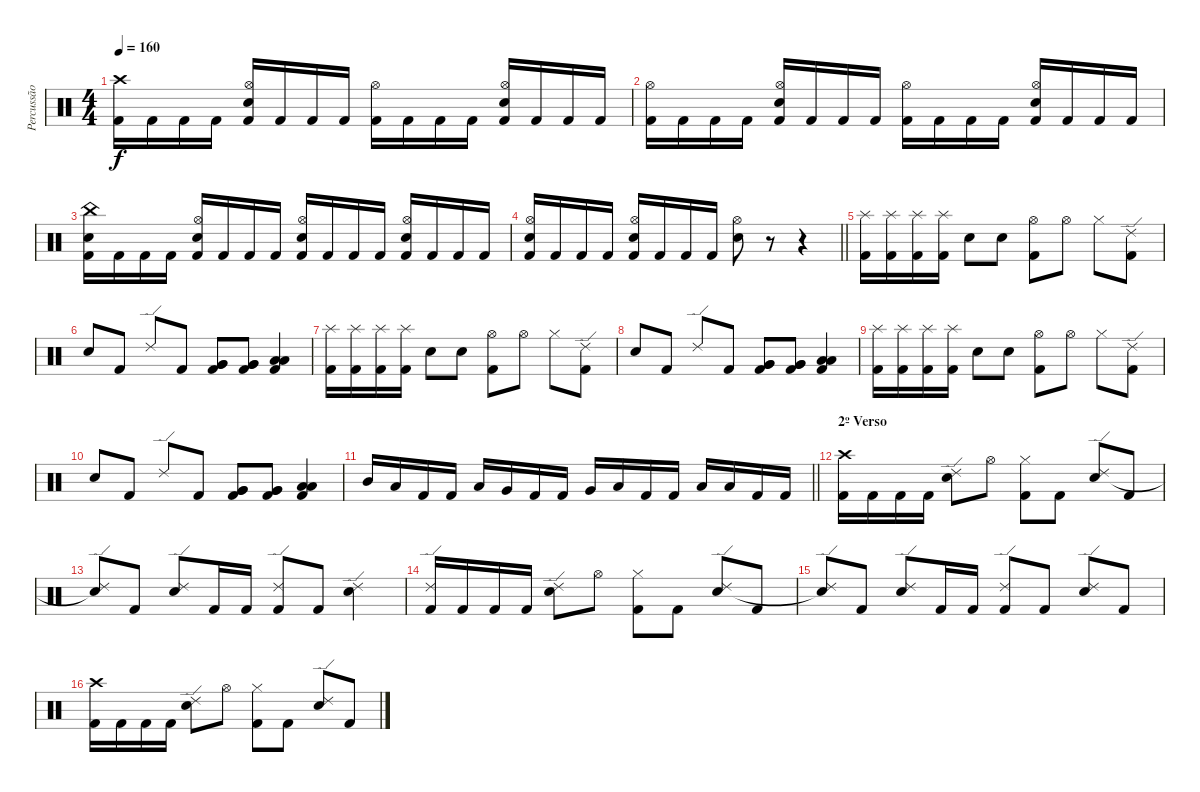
\track ("Percussão" "Percussão") {instrument percussion}
\staff {score}
\articulation defaults
\ts (4 4)
\tempo 160
\clef neutral
\ks c
("Crash high (hit)" "Kick (hit) 2").16{dy f} "Kick (hit) 2".16 "Kick (hit) 2".16 "Kick (hit) 2".16 ("Hi-Hat (open)" "Electric Snare (hit)" "Kick (hit) 2").16 "Kick (hit) 2".16 "Kick (hit) 2".16 "Kick (hit) 2".16 ("Hi-Hat (open)" "Kick (hit) 2").16 "Kick (hit) 2".16 "Kick (hit) 2".16 "Kick (hit) 2".16 ("Hi-Hat (open)" "Electric Snare (hit)" "Kick (hit) 2").16 "Kick (hit) 2".16 "Kick (hit) 2".16 "Kick (hit) 2".16 |
("Hi-Hat (open)" "Kick (hit) 2").16 "Kick (hit) 2".16 "Kick (hit) 2".16 "Kick (hit) 2".16 ("Hi-Hat (open)" "Electric Snare (hit)" "Kick (hit) 2").16 "Kick (hit) 2".16 "Kick (hit) 2".16 "Kick (hit) 2".16 ("Hi-Hat (open)" "Kick (hit) 2").16 "Kick (hit) 2".16 "Kick (hit) 2".16 "Kick (hit) 2".16 ("Hi-Hat (open)" "Electric Snare (hit)" "Kick (hit) 2").16 "Kick (hit) 2".16 "Kick (hit) 2".16 "Kick (hit) 2".16 |
("China (hit)" "Electric Snare (hit)" "Kick (hit) 2").16 "Kick (hit) 2".16 "Kick (hit) 2".16 "Kick (hit) 2".16 ("Hi-Hat (open)" "Electric Snare (hit)" "Kick (hit) 2").16 "Kick (hit) 2".16 "Kick (hit) 2".16 "Kick (hit) 2".16 ("Hi-Hat (open)" "Electric Snare (hit)" "Kick (hit) 2").16 "Kick (hit) 2".16 "Kick (hit) 2".16 "Kick (hit) 2".16 ("Hi-Hat (open)" "Electric Snare (hit)" "Kick (hit) 2").16 "Kick (hit) 2".16 "Kick (hit) 2".16 "Kick (hit) 2".16 |
\barLineRight lightlight
("Hi-Hat (open)" "Electric Snare (hit)" "Kick (hit) 2").16 "Kick (hit) 2".16 "Kick (hit) 2".16 "Kick (hit) 2".16 ("Hi-Hat (open)" "Electric Snare (hit)" "Kick (hit) 2").16 "Kick (hit) 2".16 "Kick (hit) 2".16 "Kick (hit) 2".16 ("Hi-Hat (open)" "Electric Snare (hit)").8 r.8 r.4 |
("Splash (hit)" "Kick (hit) 2").16 ("Splash (hit)" "Kick (hit) 2").16 ("Splash (hit)" "Kick (hit) 2").16 ("Splash (hit)" "Kick (hit) 2").16 "Electric Snare (hit)".8 "Electric Snare (hit)".8 ("Hi-Hat (open)" "Kick (hit) 2").8 "Hi-Hat (open)".8 "Hi-Hat (closed)".8 ("Ride (edge) 2" "Kick (hit) 2").8 |
"Electric Snare (hit)".8 "Kick (hit) 2".8 "Ride (edge) 2".8 "Kick (hit) 2".8 ("Very Low Tom (hit)" "Very Low Tom (hit)" "Kick (hit) 2").8 ("Very Low Tom (hit)" "Very Low Tom (hit)" "Kick (hit) 2").8 ("Low Floor Tom (hit)" "Low Floor Tom (hit)" "Kick (hit) 2").4 |
("Splash (hit)" "Kick (hit) 2").16 ("Splash (hit)" "Kick (hit) 2").16 ("Splash (hit)" "Kick (hit) 2").16 ("Splash (hit)" "Kick (hit) 2").16 "Electric Snare (hit)".8 "Electric Snare (hit)".8 ("Hi-Hat (open)" "Kick (hit) 2").8 "Hi-Hat (open)".8 "Hi-Hat (closed)".8 ("Ride (edge) 2" "Kick (hit) 2").8 |
"Electric Snare (hit)".8 "Kick (hit) 2".8 "Ride (edge) 2".8 "Kick (hit) 2".8 ("Very Low Tom (hit)" "Very Low Tom (hit)" "Kick (hit) 2").8 ("Very Low Tom (hit)" "Very Low Tom (hit)" "Kick (hit) 2").8 ("Low Floor Tom (hit)" "Low Floor Tom (hit)" "Kick (hit) 2").4 |
("Splash (hit)" "Kick (hit) 2").16 ("Splash (hit)" "Kick (hit) 2").16 ("Splash (hit)" "Kick (hit) 2").16 ("Splash (hit)" "Kick (hit) 2").16 "Electric Snare (hit)".8 "Electric Snare (hit)".8 ("Hi-Hat (open)" "Kick (hit) 2").8 "Hi-Hat (open)".8 "Hi-Hat (closed)".8 ("Ride (edge) 2" "Kick (hit) 2").8 |
"Electric Snare (hit)".8 "Kick (hit) 2".8 "Ride (edge) 2".8 "Kick (hit) 2".8 ("Very Low Tom (hit)" "Very Low Tom (hit)" "Kick (hit) 2").8 ("Very Low Tom (hit)" "Very Low Tom (hit)" "Kick (hit) 2").8 ("Low Floor Tom (hit)" "Low Floor Tom (hit)" "Kick (hit) 2").4 |
\barLineRight lightlight "Mid Tom (hit)".16 "Low Tom (hit)".16 "Kick (hit) 2".16 "Kick (hit) 2".16 "Low Tom (hit)".16 "Very Low Tom (hit)".16 "Kick (hit) 2".16 "Kick (hit) 2".16 "Very Low Tom (hit)".16 "Low Floor Tom (hit)".16 "Kick (hit) 2".16 "Kick (hit) 2".16 "Low Floor Tom (hit)".16 "Low Floor Tom (hit)".16 "Kick (hit) 2".16 "Kick (hit) 2".16
|
\section ("" "2º Verso")
("Crash high (hit)" "Kick (hit) 2").16 "Kick (hit) 2".16 "Kick (hit) 2".16 "Kick (hit) 2".16 ("Ride (edge) 2" "Electric Snare (hit)").8 "Hi-Hat (open)".8 ("Hi-Hat (closed)" "Kick (hit) 2").8 "Kick (hit) 2".8 ("Ride (edge) 2" "Electric Snare (hit)").8 "Kick (hit) 2".8 |
("Ride (edge) 2" "Snare (hit)"{t}).8 "Kick (hit) 2".8 ("Ride (edge) 2" "Electric Snare (hit)").8 "Kick (hit) 2".16 "Kick (hit) 2".16 ("Ride (edge) 2" "Kick (hit) 2").8 "Kick (hit) 2".8 ("Ride (edge) 2" "Electric Snare (hit)").4 |
("Ride (edge) 2" "Kick (hit) 2").16 "Kick (hit) 2".16 "Kick (hit) 2".16 "Kick (hit) 2".16 ("Ride (edge) 2" "Electric Snare (hit)").8 "Hi-Hat (open)".8 ("Hi-Hat (closed)" "Kick (hit) 2").8 "Kick (hit) 2".8 ("Ride (edge) 2" "Electric Snare (hit)").8 "Kick (hit) 2".8 |
("Ride (edge) 2" "Snare (hit)"{t}).8 "Kick (hit) 2".8 ("Ride (edge) 2" "Electric Snare (hit)").8 "Kick (hit) 2".16 "Kick (hit) 2".16 ("Ride (edge) 2" "Kick (hit) 2").8 "Kick (hit) 2".8 ("Ride (edge) 2" "Electric Snare (hit)").8 "Kick (hit) 2".8 |
("Crash high (hit)" "Kick (hit) 2").16 "Kick (hit) 2".16 "Kick (hit) 2".16 "Kick (hit) 2".16 ("Ride (edge) 2" "Electric Snare (hit)").8 "Hi-Hat (open)".8 ("Hi-Hat (closed)" "Kick (hit) 2").8 "Kick (hit) 2".8 ("Ride (edge) 2" "Electric Snare (hit)").8 "Kick (hit) 2".8
